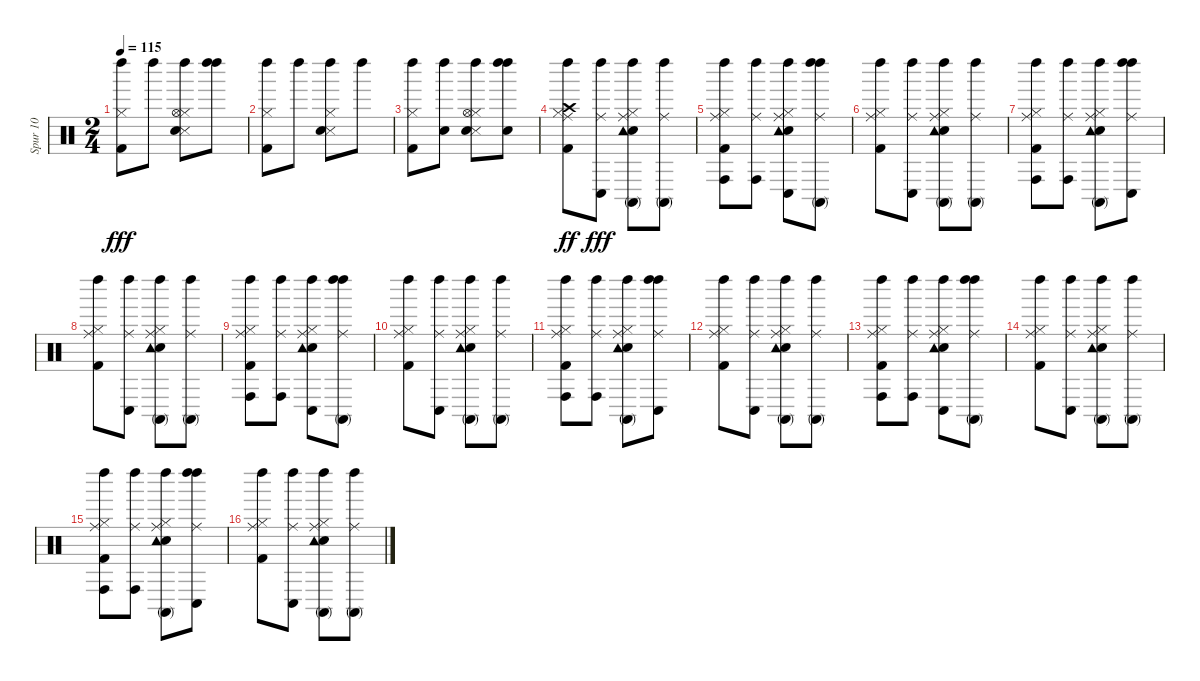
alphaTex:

\track ("Spur 10" "Spur 10") {instrument percussion}
\staff {score}
\articulation defaults
\ts (2 4)
\tempo 115
\clef neutral
\ks c
("Kick (hit) 2" "Hi-Hat (closed)" "Left Maraca (hit)").8{dy fff} "Left Maraca (hit)".8 ("Snare (side stick) 3" "Hi-Hat (closed)" "Hi-Hat (open)" "Left Maraca (hit)" "Electric Snare (hit)").8 ("Left Maraca (hit)" "Left Maraca (hit)").8 |
("Hi-Hat (closed)" "Kick (hit) 2" "Left Maraca (hit)").8 "Left Maraca (hit)".8 ("Hi-Hat (closed)" "Snare (side stick) 3" "Left Maraca (hit)" "Electric Snare (hit)").8 "Left Maraca (hit)".8 |
("Kick (hit) 2" "Hi-Hat (closed)" "Left Maraca (hit)").8 ("Left Maraca (hit)" "Electric Snare (hit)").8 ("Hi-Hat (closed)" "Snare (side stick) 3" "Hi-Hat (open)" "Left Maraca (hit)" "Electric Snare (hit)").8 ("Left Maraca (hit)" "Left Maraca (hit)" "Electric Snare (hit)").8 |
("Left Maraca (hit)" "Hi-Hat (closed)" "Kick (hit) 2" "Ride (middle)" "Crash high (hit)").8{dy ff} ("Left Maraca (hit)" "Conga low (hit)" "Ride (middle)").8{dy fff} ("Left Maraca (hit)" "Hi-Hat (closed)" "Electric Snare (hit)" "Tambourine (hit)" "Conga high (mute)" "Ride (middle)").8 ("Left Maraca (hit)" "Conga high (mute)" "Ride (middle)").8 |
("Left Maraca (hit)" "Hi-Hat (closed)" "Kick (hit) 2" "Conga high (hit)" "Ride (middle)").8 ("Left Maraca (hit)" "Conga high (hit)" "Ride (middle)").8 ("Left Maraca (hit)" "Hi-Hat (closed)" "Electric Snare (hit)" "Tambourine (hit)" "Conga low (hit)" "Ride (middle)").8 ("Left Maraca (hit)" "Ride (middle)" "Left Maraca (hit)" "Conga high (mute)").8 |
("Left Maraca (hit)" "Hi-Hat (closed)" "Kick (hit) 2" "Ride (middle)").8 ("Left Maraca (hit)" "Conga low (hit)" "Ride (middle)").8 ("Left Maraca (hit)" "Hi-Hat (closed)" "Electric Snare (hit)" "Tambourine (hit)" "Conga high (mute)" "Ride (middle)").8 ("Ride (middle)" "Left Maraca (hit)" "Conga high (mute)").8 |
("Left Maraca (hit)" "Hi-Hat (closed)" "Kick (hit) 2" "Conga high (hit)" "Ride (middle)").8 ("Left Maraca (hit)" "Conga high (hit)" "Ride (middle)").8 ("Left Maraca (hit)" "Hi-Hat (closed)" "Electric Snare (hit)" "Tambourine (hit)" "Conga high (mute)" "Ride (middle)").8 ("Left Maraca (hit)" "Ride (middle)" "Left Maraca (hit)" "Conga low (hit)").8 |
("Left Maraca (hit)" "Hi-Hat (closed)" "Kick (hit) 2" "Ride (middle)").8 ("Left Maraca (hit)" "Conga low (hit)" "Ride (middle)").8 ("Left Maraca (hit)" "Hi-Hat (closed)" "Electric Snare (hit)" "Tambourine (hit)" "Conga high (mute)" "Ride (middle)").8 ("Left Maraca (hit)" "Conga high (mute)" "Ride (middle)").8 |
("Left Maraca (hit)" "Hi-Hat (closed)" "Kick (hit) 2" "Conga high (hit)" "Ride (middle)").8 ("Left Maraca (hit)" "Conga high (hit)" "Ride (middle)").8 ("Left Maraca (hit)" "Hi-Hat (closed)" "Electric Snare (hit)" "Tambourine (hit)" "Conga low (hit)" "Ride (middle)").8 ("Left Maraca (hit)" "Ride (middle)" "Left Maraca (hit)" "Conga high (mute)").8 |
("Left Maraca (hit)" "Hi-Hat (closed)" "Kick (hit) 2" "Ride (middle)").8 ("Left Maraca (hit)" "Conga low (hit)" "Ride (middle)").8 ("Left Maraca (hit)" "Hi-Hat (closed)" "Electric Snare (hit)" "Tambourine (hit)" "Conga high (mute)" "Ride (middle)").8 ("Ride (middle)" "Left Maraca (hit)" "Conga high (mute)").8 |
("Left Maraca (hit)" "Hi-Hat (closed)" "Kick (hit) 2" "Conga high (hit)" "Ride (middle)").8 ("Left Maraca (hit)" "Conga high (hit)" "Ride (middle)").8 ("Left Maraca (hit)" "Hi-Hat (closed)" "Electric Snare (hit)" "Tambourine (hit)" "Conga high (mute)" "Ride (middle)").8 ("Left Maraca (hit)" "Ride (middle)" "Left Maraca (hit)" "Conga low (hit)").8 |
("Left Maraca (hit)" "Hi-Hat (closed)" "Kick (hit) 2" "Ride (middle)").8 ("Left Maraca (hit)" "Conga low (hit)" "Ride (middle)").8 ("Left Maraca (hit)" "Hi-Hat (closed)" "Electric Snare (hit)" "Tambourine (hit)" "Conga high (mute)" "Ride (middle)").8 ("Left Maraca (hit)" "Conga high (mute)" "Ride (middle)").8 |
("Left Maraca (hit)" "Hi-Hat (closed)" "Kick (hit) 2" "Conga high (hit)" "Ride (middle)").8 ("Left Maraca (hit)" "Conga high (hit)" "Ride (middle)").8 ("Left Maraca (hit)" "Hi-Hat (closed)" "Electric Snare (hit)" "Tambourine (hit)" "Conga low (hit)" "Ride (middle)").8 ("Left Maraca (hit)" "Ride (middle)" "Left Maraca (hit)" "Conga high (mute)").8 |
("Left Maraca (hit)" "Hi-Hat (closed)" "Kick (hit) 2" "Ride (middle)").8 ("Left Maraca (hit)" "Conga low (hit)" "Ride (middle)").8 ("Left Maraca (hit)" "Hi-Hat (closed)" "Electric Snare (hit)" "Tambourine (hit)" "Conga high (mute)" "Ride (middle)").8 ("Ride (middle)" "Left Maraca (hit)" "Conga high (mute)").8 |
("Left Maraca (hit)" "Hi-Hat (closed)" "Kick (hit) 2" "Conga high (hit)" "Ride (middle)").8 ("Left Maraca (hit)" "Conga high (hit)" "Ride (middle)").8 ("Left Maraca (hit)" "Hi-Hat (closed)" "Electric Snare (hit)" "Tambourine (hit)" "Conga high (mute)" "Ride (middle)").8 ("Left Maraca (hit)" "Ride (middle)" "Left Maraca (hit)" "Conga low (hit)").8 |
("Left Maraca (hit)" "Hi-Hat (closed)" "Kick (hit) 2" "Ride (middle)").8 ("Left Maraca (hit)" "Conga low (hit)" "Ride (middle)").8 ("Left Maraca (hit)" "Hi-Hat (closed)" "Electric Snare (hit)" "Tambourine (hit)" "Conga high (mute)" "Ride (middle)").8 ("Left Maraca (hit)" "Conga high (mute)" "Ride (middle)").8
